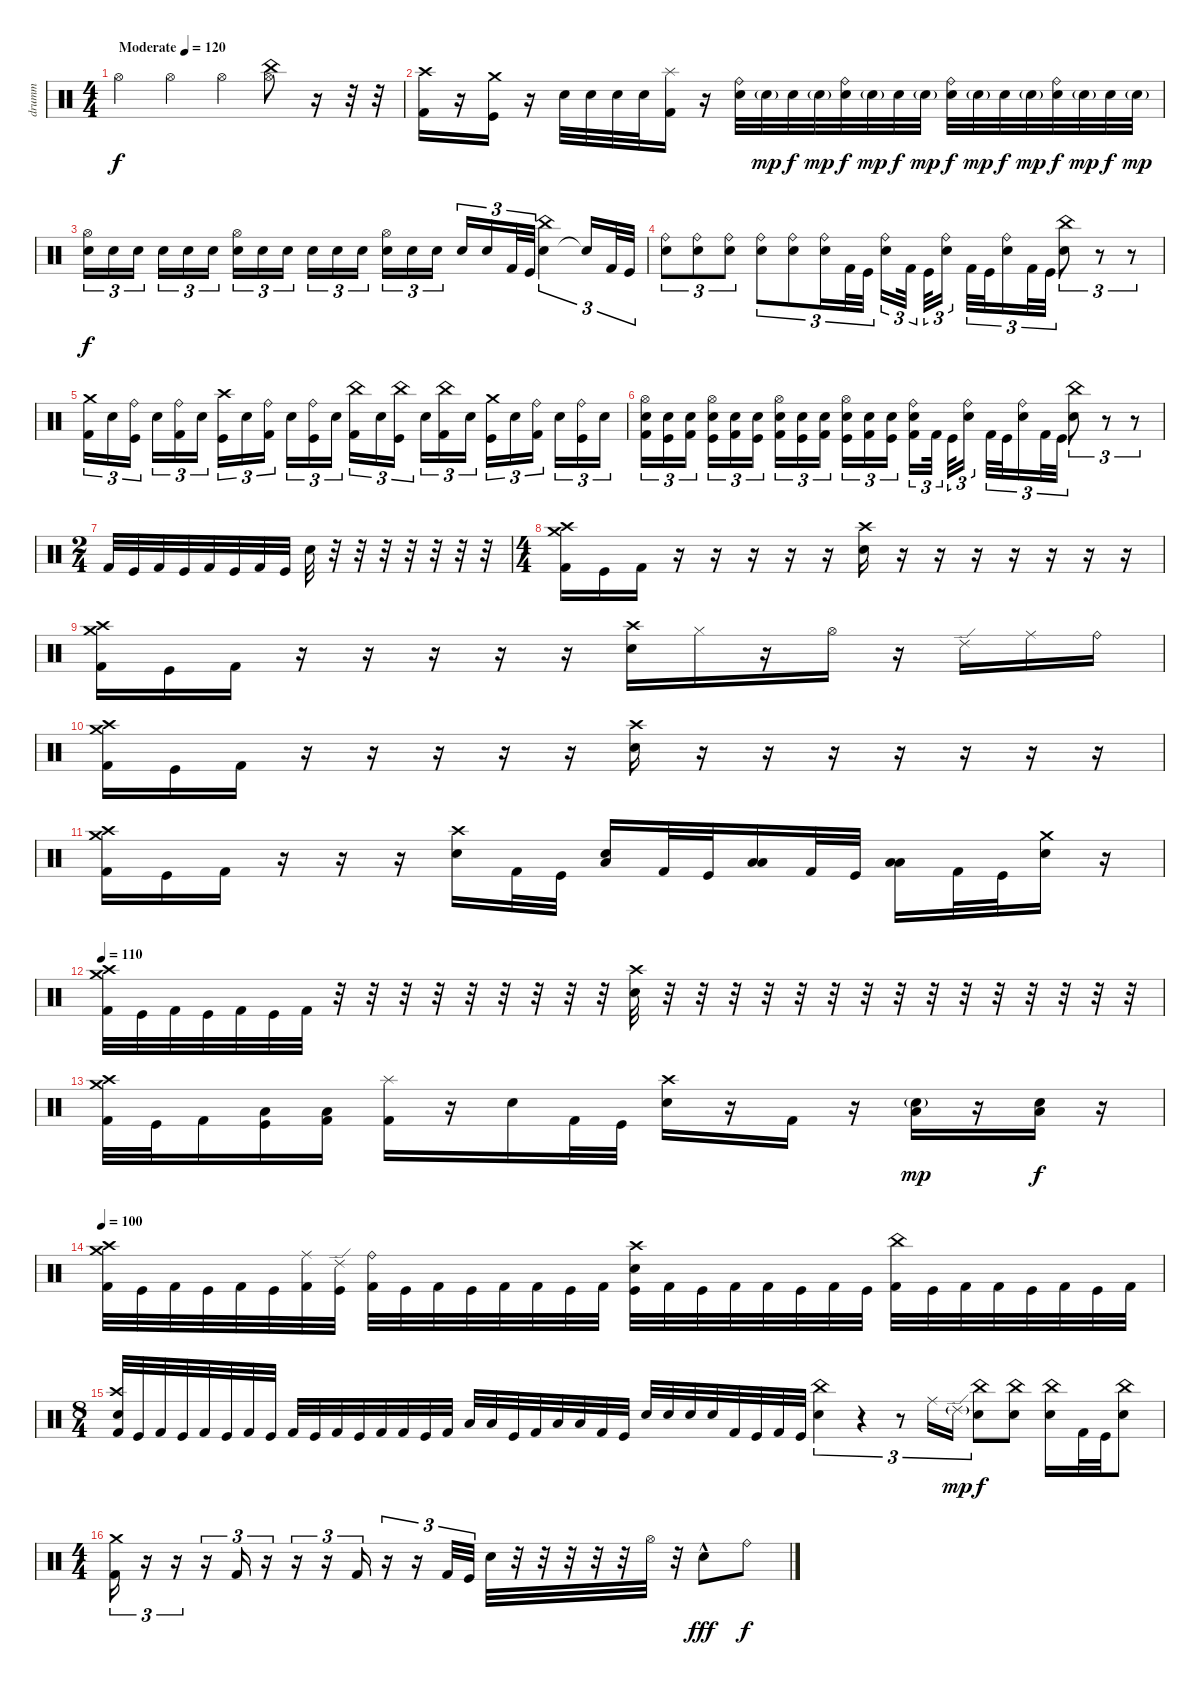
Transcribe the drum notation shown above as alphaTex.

\track ("drumm" "drumm") {instrument percussion}
\staff
\articulation defaults
\ts (4 4)
\tempo (120 "Moderate")
\clef neutral
\ks c "Hi-Hat (open)".4{dy f} "Hi-Hat (open)".4 "Hi-Hat (open)".4
("China (hit)" "Hi-Hat (open)").8 r.16 r.32 r.32 |
("Kick (hit) 2" "Crash high (hit)").16 r.16 ("Kick (hit)" "Crash medium (hit)").16 r.16 "Electric Snare (hit)".32 "Electric Snare (hit)".32 "Electric Snare (hit)".32 "Electric Snare (hit)".32 ("Kick (hit) 2" "Splash (hit)").16 r.16 ("Electric Snare (hit)" "Ride (bell)").32 "Electric Snare (hit)"{g}.32{dy mp} "Electric Snare (hit)".32{dy f} "Electric Snare (hit)"{g}.32{dy mp} ("Electric Snare (hit)" "Ride (bell)").32{dy f} "Electric Snare (hit)"{g}.32{dy mp} "Electric Snare (hit)".32{dy f} "Electric Snare (hit)"{g}.32{dy mp} ("Electric Snare (hit)" "Ride (bell)").32{dy f} "Electric Snare (hit)"{g}.32{dy mp} "Electric Snare (hit)".32{dy f} "Electric Snare (hit)"{g}.32{dy mp} ("Electric Snare (hit)" "Ride (bell)").32{dy f} "Electric Snare (hit)"{g}.32{dy mp} "Electric Snare (hit)".32{dy f} "Electric Snare (hit)"{g}.32{dy mp} |
("Electric Snare (hit)" "Hi-Hat (open)").16{tu (3 2) dy f} "Electric Snare (hit)".16{tu (3 2)} "Electric Snare (hit)".16{tu (3 2) beam splitsecondary} "Electric Snare (hit)".16{tu (3 2)} "Electric Snare (hit)".16{tu (3 2)} "Electric Snare (hit)".16{tu (3 2)} ("Electric Snare (hit)" "Hi-Hat (open)").16{tu (3 2)} "Electric Snare (hit)".16{tu (3 2)} "Electric Snare (hit)".16{tu (3 2) beam splitsecondary} "Electric Snare (hit)".16{tu (3 2)} "Electric Snare (hit)".16{tu (3 2)} "Electric Snare (hit)".16{tu (3 2)} ("Electric Snare (hit)" "Hi-Hat (open)").16{tu (3 2)} "Electric Snare (hit)".16{tu (3 2)} "Electric Snare (hit)".16{tu (3 2) beam splitsecondary} "Electric Snare (hit)".16{tu (3 2)} "Electric Snare (hit)".16{tu (3 2)} "Kick (hit) 2".32{tu (3 2)} "Kick (hit)".32{tu (3 2)} ("Electric Snare (hit)" "China (hit)").4{tu (3 2)} "Snare (hit)"{t}.16{tu (3 2)} "Kick (hit) 2".32{tu (3 2)} "Kick (hit)".32{tu (3 2)} |
("Electric Snare (hit)" "Ride (bell)").8{tu (3 2)} ("Electric Snare (hit)" "Ride (bell)").8{tu (3 2)} ("Electric Snare (hit)" "Ride (bell)").8{tu (3 2)} ("Electric Snare (hit)" "Ride (bell)").8{tu (3 2)} ("Electric Snare (hit)" "Ride (bell)").8{tu (3 2)} ("Electric Snare (hit)" "Ride (bell)").16{tu (3 2)} "Kick (hit) 2".32{tu (3 2)} "Kick (hit)".32{tu (3 2)} ("Electric Snare (hit)" "Ride (bell)").16{tu (3 2)} "Kick (hit) 2".32{tu (3 2) beam splitsecondary} "Kick (hit)".32{tu (3 2)} ("Electric Snare (hit)" "Ride (bell)").16{tu (3 2) beam splitsecondary} "Kick (hit) 2".32{tu (3 2)} "Kick (hit)".32{tu (3 2)} ("Electric Snare (hit)" "Ride (bell)").16{tu (3 2)} "Kick (hit) 2".32{tu (3 2)} "Kick (hit)".32{tu (3 2)} ("Electric Snare (hit)" "China (hit)").8{tu (3 2)} r.8{tu (3 2)} r.8{tu (3 2)} |
("Crash medium (hit)" "Kick (hit) 2").16{tu (3 2)} "Electric Snare (hit)".16{tu (3 2)} ("Ride (bell)" "Kick (hit)").16{tu (3 2) beam splitsecondary} "Electric Snare (hit)".16{tu (3 2)} ("Ride (bell)" "Kick (hit) 2").16{tu (3 2)} "Electric Snare (hit)".16{tu (3 2)} ("Crash high (hit)" "Kick (hit)").16{tu (3 2)} "Electric Snare (hit)".16{tu (3 2)} ("Ride (bell)" "Kick (hit) 2").16{tu (3 2) beam splitsecondary} "Electric Snare (hit)".16{tu (3 2)} ("Ride (bell)" "Kick (hit)").16{tu (3 2)} "Electric Snare (hit)".16{tu (3 2)} ("China (hit)" "Kick (hit) 2").16{tu (3 2)} "Electric Snare (hit)".16{tu (3 2)} ("China (hit)" "Kick (hit)").16{tu (3 2) beam splitsecondary} "Electric Snare (hit)".16{tu (3 2)} ("China (hit)" "Kick (hit) 2").16{tu (3 2)} "Electric Snare (hit)".16{tu (3 2)} ("Crash medium (hit)" "Kick (hit)").16{tu (3 2)} "Electric Snare (hit)".16{tu (3 2)} ("Ride (bell)" "Kick (hit) 2").16{tu (3 2) beam splitsecondary} "Electric Snare (hit)".16{tu (3 2)} ("Ride (bell)" "Kick (hit)").16{tu (3 2)} "Electric Snare (hit)".16{tu (3 2)} |
("Electric Snare (hit)" "Hi-Hat (open)" "Kick (hit) 2").16{tu (3 2)} ("Electric Snare (hit)" "Kick (hit)").16{tu (3 2)} ("Electric Snare (hit)" "Kick (hit) 2").16{tu (3 2) beam splitsecondary} ("Electric Snare (hit)" "Hi-Hat (open)" "Kick (hit)").16{tu (3 2)} ("Electric Snare (hit)" "Kick (hit) 2").16{tu (3 2)} ("Electric Snare (hit)" "Kick (hit)").16{tu (3 2)} ("Electric Snare (hit)" "Hi-Hat (open)" "Kick (hit) 2").16{tu (3 2)} ("Electric Snare (hit)" "Kick (hit)").16{tu (3 2)} ("Electric Snare (hit)" "Kick (hit) 2").16{tu (3 2) beam splitsecondary} ("Electric Snare (hit)" "Hi-Hat (open)" "Kick (hit)").16{tu (3 2)} ("Electric Snare (hit)" "Kick (hit) 2").16{tu (3 2)} ("Electric Snare (hit)" "Kick (hit)").16{tu (3 2)} ("Electric Snare (hit)" "Ride (bell)" "Kick (hit) 2").16{tu (3 2)} "Kick (hit) 2".32{tu (3 2) beam splitsecondary} "Kick (hit)".32{tu (3 2)} ("Electric Snare (hit)" "Ride (bell)").16{tu (3 2) beam splitsecondary} "Kick (hit) 2".32{tu (3 2)} "Kick (hit)".32{tu (3 2)} ("Electric Snare (hit)" "Ride (bell)").16{tu (3 2)} "Kick (hit) 2".32{tu (3 2)} "Kick (hit)".32{tu (3 2)} ("Electric Snare (hit)" "China (hit)").8{tu (3 2)} r.8{tu (3 2)} r.8{tu (3 2)} |
\ts (2 4)
"Kick (hit) 2".32 "Kick (hit)".32 "Kick (hit) 2".32 "Kick (hit)".32 "Kick (hit) 2".32 "Kick (hit)".32 "Kick (hit) 2".32 "Kick (hit)".32 "Electric Snare (hit)".32 r.32 r.32 r.32 r.32 r.32 r.32 r.32 |
\ts (4 4)
("Kick (hit) 2" "Crash medium (hit)" "Crash high (hit)").16 "Kick (hit)".16 "Kick (hit) 2".16 r.16 r.16 r.16 r.16 r.16 ("Electric Snare (hit)" "Crash high (hit)").16 r.16 r.16 r.16 r.16 r.16 r.16 r.16 |
("Kick (hit) 2" "Crash medium (hit)" "Crash high (hit)").16 "Kick (hit)".16 "Kick (hit) 2".16 r.16 r.16 r.16 r.16 r.16 ("Electric Snare (hit)" "Crash high (hit)").16 "Hi-Hat (closed)".16 r.16 "Hi-Hat (open)".16 r.16 "Ride (edge) 2".16 "Ride (middle)".16 "Ride (bell)".16 |
("Kick (hit) 2" "Crash medium (hit)" "Crash high (hit)").16 "Kick (hit)".16 "Kick (hit) 2".16 r.16 r.16 r.16 r.16 r.16 ("Electric Snare (hit)" "Crash high (hit)").16 r.16 r.16 r.16 r.16 r.16 r.16 r.16 |
("Kick (hit) 2" "Crash medium (hit)" "Crash high (hit)").16 "Kick (hit)".16 "Kick (hit) 2".16 r.16 r.16 r.16 ("Electric Snare (hit)" "Crash high (hit)").16 "Kick (hit) 2".32 "Kick (hit)".32 ("Low Tom (hit)" "Electric Snare (hit)").16 "Kick (hit) 2".32 "Kick (hit)".32 ("Low Tom (hit)" "Low Floor Tom (hit)").16 "Kick (hit) 2".32 "Kick (hit)".32 ("Low Floor Tom (hit)" "Low Floor Tom (hit)").16 "Kick (hit) 2".32 "Kick (hit)".32 ("Electric Snare (hit)" "Crash medium (hit)").16 r.16 |
\tempo 110
("Kick (hit) 2" "Crash medium (hit)" "Crash high (hit)").32 "Kick (hit)".32 "Kick (hit) 2".32 "Kick (hit)".32 "Kick (hit) 2".32 "Kick (hit)".32 "Kick (hit) 2".32 r.32 r.32 r.32 r.32 r.32 r.32 r.32 r.32 r.32 ("Electric Snare (hit)" "Crash high (hit)").32 r.32 r.32 r.32 r.32 r.32 r.32 r.32 r.32 r.32 r.32 r.32 r.32 r.32 r.32 r.32 |
("Kick (hit) 2" "Crash medium (hit)" "Crash high (hit)").32 "Kick (hit)".32 "Kick (hit) 2".16 ("Kick (hit)" "Low Tom (hit)").16 ("Kick (hit) 2" "Low Floor Tom (hit)").16 ("Kick (hit) 2" "Splash (hit)").16 r.16 "Electric Snare (hit)".16 "Kick (hit) 2".32 "Kick (hit)".32 ("Electric Snare (hit)" "Crash high (hit)").16 r.16 "Kick (hit) 2".16 r.16 ("Electric Snare (hit)"{g} "Low Floor Tom (hit)").16{dy mp} r.16 ("Electric Snare (hit)" "Low Floor Tom (hit)").16{dy f} r.16 |
\tempo 100
("Kick (hit) 2" "Crash medium (hit)" "Crash high (hit)").32 "Kick (hit)".32 "Kick (hit) 2".32 "Kick (hit)".32 "Kick (hit) 2".32 "Kick (hit)".32 ("Kick (hit) 2" "Ride (middle)").32 ("Kick (hit)" "Ride (edge) 2").32 ("Kick (hit) 2" "Ride (bell)").32 "Kick (hit)".32 "Kick (hit) 2".32 "Kick (hit)".32 "Kick (hit) 2".32 "Kick (hit) 2".32 "Kick (hit)".32 "Kick (hit) 2".32 ("Kick (hit)" "Crash high (hit)" "Electric Snare (hit)").32 "Kick (hit) 2".32 "Kick (hit)".32 "Kick (hit) 2".32 "Kick (hit) 2".32 "Kick (hit)".32 "Kick (hit) 2".32 "Kick (hit)".32 ("Kick (hit) 2" "China (hit)").32 "Kick (hit)".32 "Kick (hit) 2".32 "Kick (hit) 2".32 "Kick (hit)".32 "Kick (hit) 2".32 "Kick (hit)".32 "Kick (hit) 2".32 |
\ts (8 4)
("Kick (hit) 2" "Electric Snare (hit)" "Crash high (hit)").32 "Kick (hit)".32 "Kick (hit) 2".32 "Kick (hit)".32 "Kick (hit) 2".32 "Kick (hit)".32 "Kick (hit) 2".32 "Kick (hit)".32 "Kick (hit) 2".32 "Kick (hit)".32 "Kick (hit) 2".32 "Kick (hit)".32 "Kick (hit) 2".32 "Kick (hit) 2".32 "Kick (hit)".32 "Kick (hit) 2".32 "Low Tom (hit)".32 "Low Tom (hit)".32 "Kick (hit)".32 "Kick (hit) 2".32 "Low Floor Tom (hit)".32 "Low Floor Tom (hit)".32 "Kick (hit) 2".32 "Kick (hit)".32 "Electric Snare (hit)".32 "Electric Snare (hit)".32 "Electric Snare (hit)".32 "Electric Snare (hit)".32 "Kick (hit) 2".32 "Kick (hit)".32 "Kick (hit) 2".32 "Kick (hit)".32 ("Electric Snare (hit)" "China (hit)").4{tu (3 2)} r.4{tu (3 2)} r.8{tu (3 2)} "Ride (middle)".16{tu (3 2)} "Ride (edge) 2"{g}.16{tu (3 2) dy mp} ("Electric Snare (hit)" "China (hit)").8{dy f} ("Electric Snare (hit)" "China (hit)").8 ("Electric Snare (hit)" "China (hit)").16 "Kick (hit) 2".32 "Kick (hit)".32 ("Electric Snare (hit)" "China (hit)").8 |
\ts (4 4)
("Kick (hit) 2" "Crash medium (hit)").16{tu (3 2)} r.16{tu (3 2)} r.16{tu (3 2)} r.16{tu (3 2)} "Kick (hit) 2".16{tu (3 2)} r.16{tu (3 2)} r.16{tu (3 2)} r.16{tu (3 2)} "Kick (hit) 2".16{tu (3 2)} r.16{tu (3 2)} r.16{tu (3 2)} "Kick (hit) 2".32{tu (3 2)} "Kick (hit)".32{tu (3 2)} "Electric Snare (hit)".32 r.32 r.32 r.32 r.32 r.32 "Hi-Hat (open)".32 r.32 "Electric Snare (hit)"{hac}.8{dy fff} "Ride (bell)".8{dy f}
